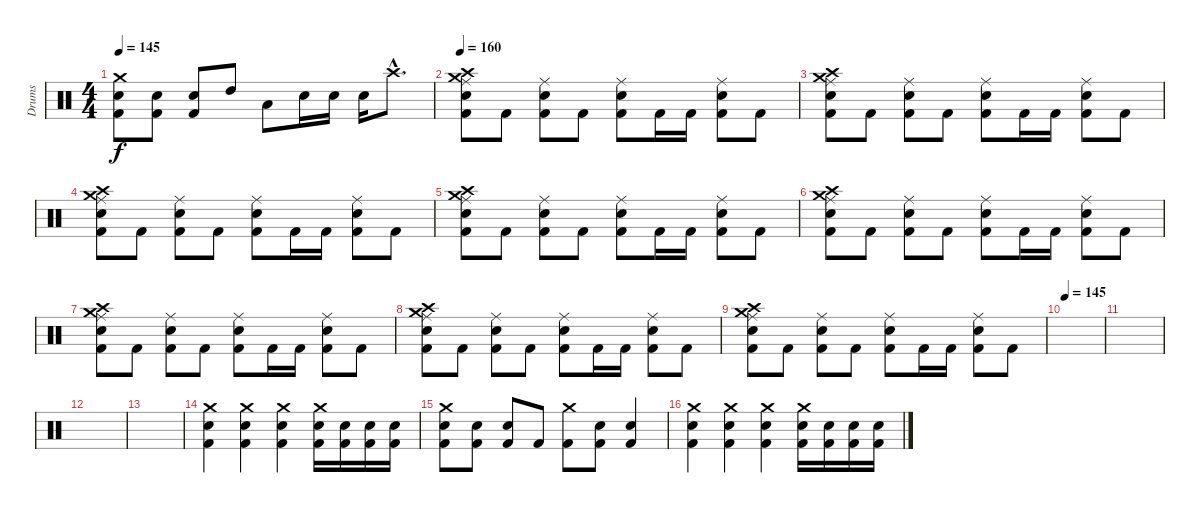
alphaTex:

\track ("Drums" "Drums") {instrument percussion}
\staff {score}
\articulation defaults
\ts (4 4)
\tempo 145
\clef neutral
\ks c
("Crash medium (hit)" "Snare (hit) 2" "Kick (hit) 2").8{dy f} ("Snare (hit) 2" "Kick (hit) 2").8 ("Snare (hit) 2" "Kick (hit) 2").8 "High Tom (hit)".8 "Low Tom (hit)".8 "Snare (hit) 2".16 "Snare (hit) 2".16 "Snare (hit) 2".16 "Crash high (hit)"{hac}.8{d} |
\tempo 160
("Crash medium (hit)" "Crash high (hit)" "Ride (middle)" "Snare (hit) 2" "Kick (hit) 2").8 "Kick (hit) 2".8 ("Ride (middle)" "Snare (hit) 2" "Kick (hit) 2").8 "Kick (hit) 2".8 ("Ride (middle)" "Snare (hit) 2" "Kick (hit) 2").8 "Kick (hit) 2".16 "Kick (hit) 2".16 ("Ride (middle)" "Snare (hit) 2" "Kick (hit) 2").8 "Kick (hit) 2".8 |
("Crash medium (hit)" "Crash high (hit)" "Ride (middle)" "Snare (hit) 2" "Kick (hit) 2").8 "Kick (hit) 2".8 ("Ride (middle)" "Snare (hit) 2" "Kick (hit) 2").8 "Kick (hit) 2".8 ("Ride (middle)" "Snare (hit) 2" "Kick (hit) 2").8 "Kick (hit) 2".16 "Kick (hit) 2".16 ("Ride (middle)" "Snare (hit) 2" "Kick (hit) 2").8 "Kick (hit) 2".8 |
("Crash medium (hit)" "Crash high (hit)" "Ride (middle)" "Snare (hit) 2" "Kick (hit) 2").8 "Kick (hit) 2".8 ("Ride (middle)" "Snare (hit) 2" "Kick (hit) 2").8 "Kick (hit) 2".8 ("Ride (middle)" "Snare (hit) 2" "Kick (hit) 2").8 "Kick (hit) 2".16 "Kick (hit) 2".16 ("Ride (middle)" "Snare (hit) 2" "Kick (hit) 2").8 "Kick (hit) 2".8 |
("Crash medium (hit)" "Crash high (hit)" "Ride (middle)" "Snare (hit) 2" "Kick (hit) 2").8 "Kick (hit) 2".8 ("Ride (middle)" "Snare (hit) 2" "Kick (hit) 2").8 "Kick (hit) 2".8 ("Ride (middle)" "Snare (hit) 2" "Kick (hit) 2").8 "Kick (hit) 2".16 "Kick (hit) 2".16 ("Ride (middle)" "Snare (hit) 2" "Kick (hit) 2").8 "Kick (hit) 2".8 |
("Crash medium (hit)" "Crash high (hit)" "Ride (middle)" "Snare (hit) 2" "Kick (hit) 2").8 "Kick (hit) 2".8 ("Ride (middle)" "Snare (hit) 2" "Kick (hit) 2").8 "Kick (hit) 2".8 ("Ride (middle)" "Snare (hit) 2" "Kick (hit) 2").8 "Kick (hit) 2".16 "Kick (hit) 2".16 ("Ride (middle)" "Snare (hit) 2" "Kick (hit) 2").8 "Kick (hit) 2".8 |
("Crash medium (hit)" "Crash high (hit)" "Ride (middle)" "Snare (hit) 2" "Kick (hit) 2").8 "Kick (hit) 2".8 ("Ride (middle)" "Snare (hit) 2" "Kick (hit) 2").8 "Kick (hit) 2".8 ("Ride (middle)" "Snare (hit) 2" "Kick (hit) 2").8 "Kick (hit) 2".16 "Kick (hit) 2".16 ("Ride (middle)" "Snare (hit) 2" "Kick (hit) 2").8 "Kick (hit) 2".8 |
("Crash medium (hit)" "Crash high (hit)" "Ride (middle)" "Snare (hit) 2" "Kick (hit) 2").8 "Kick (hit) 2".8 ("Ride (middle)" "Snare (hit) 2" "Kick (hit) 2").8 "Kick (hit) 2".8 ("Ride (middle)" "Snare (hit) 2" "Kick (hit) 2").8 "Kick (hit) 2".16 "Kick (hit) 2".16 ("Ride (middle)" "Snare (hit) 2" "Kick (hit) 2").8 "Kick (hit) 2".8 |
("Crash medium (hit)" "Crash high (hit)" "Ride (middle)" "Snare (hit) 2" "Kick (hit) 2").8 "Kick (hit) 2".8 ("Ride (middle)" "Snare (hit) 2" "Kick (hit) 2").8 "Kick (hit) 2".8 ("Ride (middle)" "Snare (hit) 2" "Kick (hit) 2").8 "Kick (hit) 2".16 "Kick (hit) 2".16 ("Ride (middle)" "Snare (hit) 2" "Kick (hit) 2").8 "Kick (hit) 2".8 |
\tempo 145
|
|
|
|
("Crash medium (hit)" "Snare (hit) 2" "Kick (hit) 2").4 ("Crash medium (hit)" "Snare (hit) 2" "Kick (hit) 2").4 ("Crash medium (hit)" "Snare (hit) 2" "Kick (hit) 2").4 ("Crash medium (hit)" "Snare (hit) 2" "Kick (hit) 2").16 ("Snare (hit) 2" "Kick (hit) 2").16 ("Snare (hit) 2" "Kick (hit) 2").16 ("Snare (hit) 2" "Kick (hit) 2").16 |
("Crash medium (hit)" "Snare (hit) 2" "Kick (hit) 2").8 ("Snare (hit) 2" "Kick (hit) 2").8 ("Snare (hit) 2" "Kick (hit) 2").8 "Kick (hit) 2".8 ("Crash medium (hit)" "Kick (hit) 2").8 ("Snare (hit) 2" "Kick (hit) 2").8 ("Snare (hit) 2" "Kick (hit) 2").4 |
("Crash medium (hit)" "Snare (hit) 2" "Kick (hit) 2").4 ("Crash medium (hit)" "Snare (hit) 2" "Kick (hit) 2").4 ("Crash medium (hit)" "Snare (hit) 2" "Kick (hit) 2").4 ("Crash medium (hit)" "Snare (hit) 2" "Kick (hit) 2").16 ("Snare (hit) 2" "Kick (hit) 2").16 ("Snare (hit) 2" "Kick (hit) 2").16 ("Snare (hit) 2" "Kick (hit) 2").16
